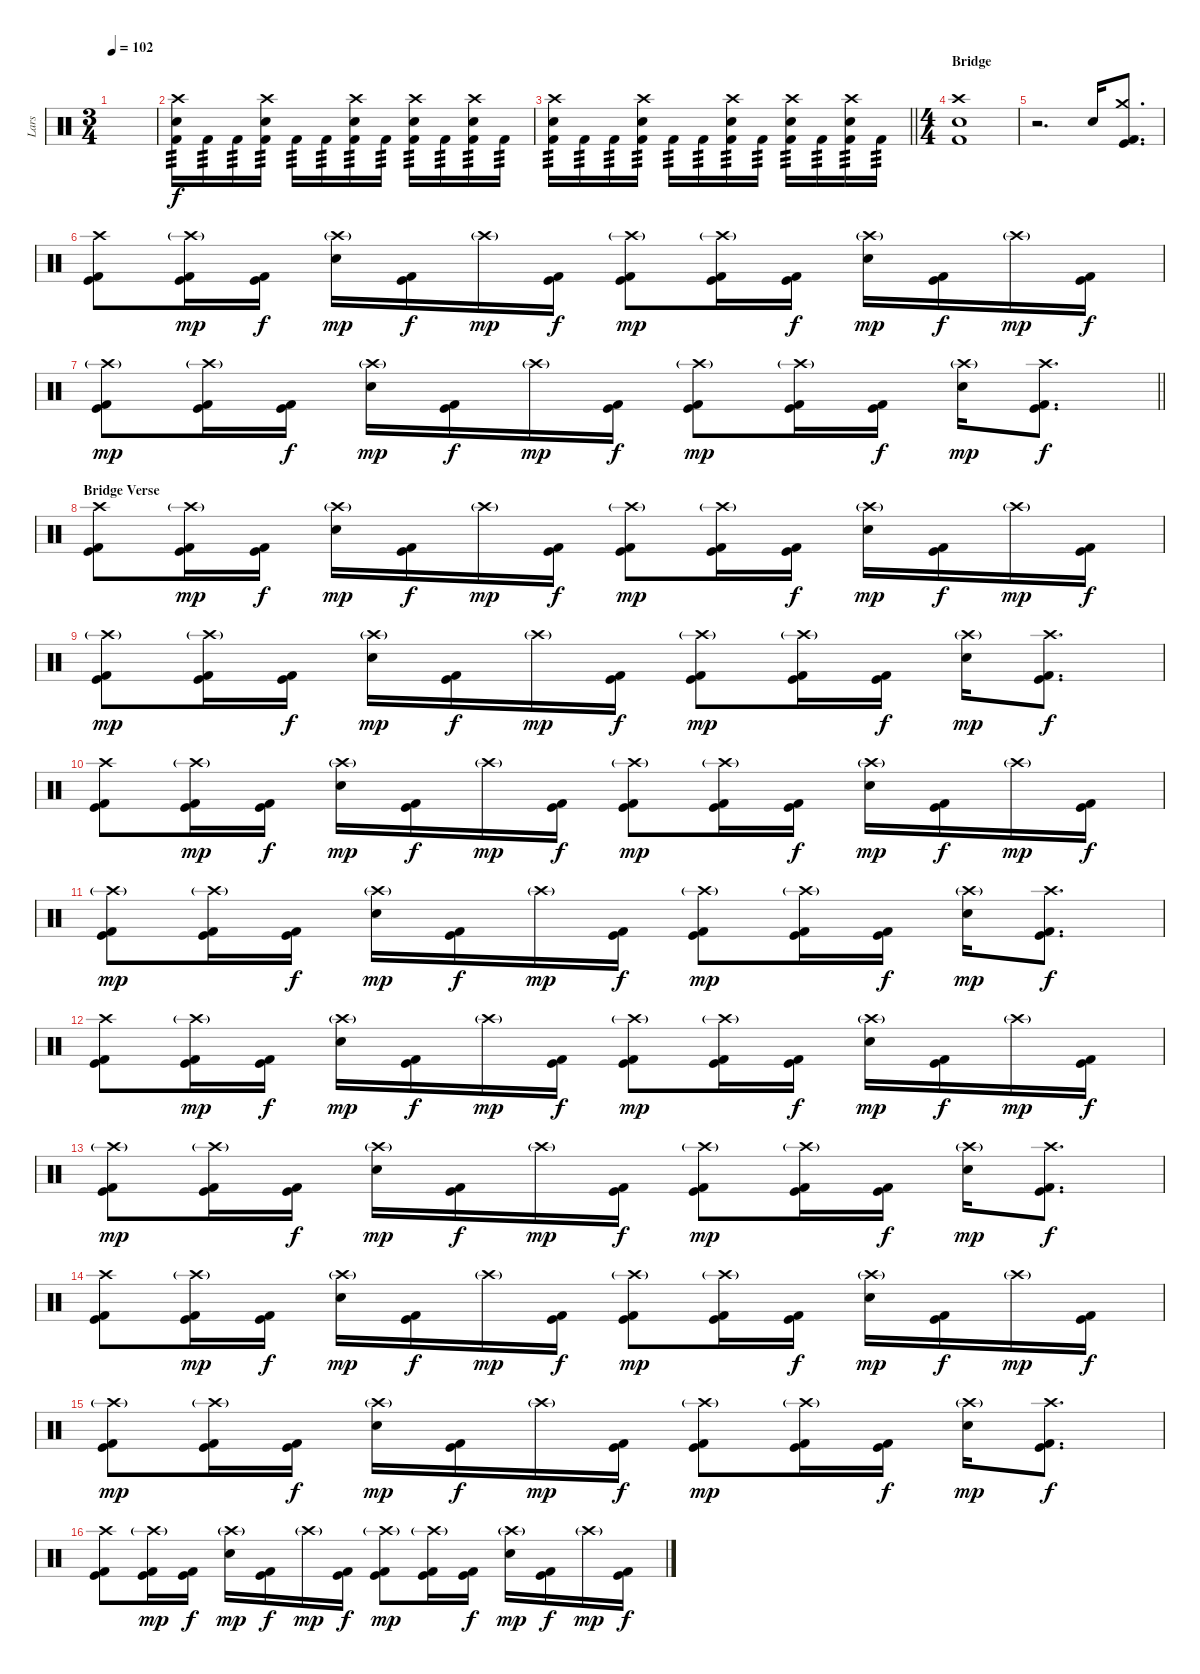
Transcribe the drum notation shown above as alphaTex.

\track ("Lars" "Lars") {instrument percussion}
\staff {score}
\articulation defaults
\ts (3 4)
\tempo 102
\clef neutral
\ks c
|
("Crash high (hit)" "Electric Snare (hit)" "Kick (hit) 2").16{tp 3} "Kick (hit) 2".16{tp 3} "Kick (hit) 2".16{tp 3} ("Crash high (hit)" "Electric Snare (hit)" "Kick (hit) 2").16{tp 3} "Kick (hit) 2".16{tp 3} "Kick (hit) 2".16{tp 3} ("Crash high (hit)" "Electric Snare (hit)" "Kick (hit) 2").16{tp 3} "Kick (hit) 2".16{tp 3} ("Crash high (hit)" "Electric Snare (hit)" "Kick (hit) 2").16{tp 3} "Kick (hit) 2".16{tp 3} ("Crash high (hit)" "Electric Snare (hit)" "Kick (hit) 2").16{tp 3} "Kick (hit) 2".16{tp 3} |
\barLineRight lightlight
("Crash high (hit)" "Electric Snare (hit)" "Kick (hit) 2").16{tp 3} "Kick (hit) 2".16{tp 3} "Kick (hit) 2".16{tp 3} ("Crash high (hit)" "Electric Snare (hit)" "Kick (hit) 2").16{tp 3} "Kick (hit) 2".16{tp 3} "Kick (hit) 2".16{tp 3} ("Crash high (hit)" "Electric Snare (hit)" "Kick (hit) 2").16{tp 3} "Kick (hit) 2".16{tp 3} ("Crash high (hit)" "Electric Snare (hit)" "Kick (hit) 2").16{tp 3} "Kick (hit) 2".16{tp 3} ("Crash high (hit)" "Electric Snare (hit)" "Kick (hit) 2").16{tp 3} "Kick (hit) 2".16{tp 3} |
\ts (4 4)
\section ("" "Bridge")
("Crash high (hit)" "Electric Snare (hit)" "Kick (hit) 2").1 |
r.2{d} "Electric Snare (hit)".16 ("Crash medium (hit)" "Kick (hit)" "Kick (hit) 2").8{d} |
("Crash high (hit)" "Kick (hit)" "Kick (hit) 2").8 ("Crash high (hit)"{g} "Kick (hit)" "Kick (hit) 2").16{dy mp} ("Kick (hit)" "Kick (hit) 2").16{dy f} ("Crash high (hit)"{g} "Electric Snare (hit)").16{dy mp} ("Kick (hit)" "Kick (hit) 2").16{dy f} "Crash high (hit)"{g}.16{dy mp} ("Kick (hit)" "Kick (hit) 2").16{dy f} ("Crash high (hit)"{g} "Kick (hit)" "Kick (hit) 2").8{dy mp} ("Crash high (hit)"{g} "Kick (hit)" "Kick (hit) 2").16 ("Kick (hit)" "Kick (hit) 2").16{dy f} ("Crash high (hit)"{g} "Electric Snare (hit)").16{dy mp} ("Kick (hit)" "Kick (hit) 2").16{dy f} "Crash high (hit)"{g}.16{dy mp} ("Kick (hit)" "Kick (hit) 2").16{dy f} |
\barLineRight lightlight
("Crash high (hit)"{g} "Kick (hit)" "Kick (hit) 2").8{dy mp} ("Crash high (hit)"{g} "Kick (hit)" "Kick (hit) 2").16 ("Kick (hit)" "Kick (hit) 2").16{dy f} ("Crash high (hit)"{g} "Electric Snare (hit)").16{dy mp} ("Kick (hit)" "Kick (hit) 2").16{dy f} "Crash high (hit)"{g}.16{dy mp} ("Kick (hit)" "Kick (hit) 2").16{dy f} ("Crash high (hit)"{g} "Kick (hit)" "Kick (hit) 2").8{dy mp} ("Crash high (hit)"{g} "Kick (hit)" "Kick (hit) 2").16 ("Kick (hit)" "Kick (hit) 2").16{dy f} ("Crash high (hit)"{g} "Electric Snare (hit)").16{dy mp} ("Crash high (hit)" "Kick (hit)" "Kick (hit) 2").8{d dy f} |
\section ("" "Bridge Verse")
("Crash high (hit)" "Kick (hit)" "Kick (hit) 2").8 ("Crash high (hit)"{g} "Kick (hit)" "Kick (hit) 2").16{dy mp} ("Kick (hit)" "Kick (hit) 2").16{dy f} ("Crash high (hit)"{g} "Electric Snare (hit)").16{dy mp} ("Kick (hit)" "Kick (hit) 2").16{dy f} "Crash high (hit)"{g}.16{dy mp} ("Kick (hit)" "Kick (hit) 2").16{dy f} ("Crash high (hit)"{g} "Kick (hit)" "Kick (hit) 2").8{dy mp} ("Crash high (hit)"{g} "Kick (hit)" "Kick (hit) 2").16 ("Kick (hit)" "Kick (hit) 2").16{dy f} ("Crash high (hit)"{g} "Electric Snare (hit)").16{dy mp} ("Kick (hit)" "Kick (hit) 2").16{dy f} "Crash high (hit)"{g}.16{dy mp} ("Kick (hit)" "Kick (hit) 2").16{dy f} |
("Crash high (hit)"{g} "Kick (hit)" "Kick (hit) 2").8{dy mp} ("Crash high (hit)"{g} "Kick (hit)" "Kick (hit) 2").16 ("Kick (hit)" "Kick (hit) 2").16{dy f} ("Crash high (hit)"{g} "Electric Snare (hit)").16{dy mp} ("Kick (hit)" "Kick (hit) 2").16{dy f} "Crash high (hit)"{g}.16{dy mp} ("Kick (hit)" "Kick (hit) 2").16{dy f} ("Crash high (hit)"{g} "Kick (hit)" "Kick (hit) 2").8{dy mp} ("Crash high (hit)"{g} "Kick (hit)" "Kick (hit) 2").16 ("Kick (hit)" "Kick (hit) 2").16{dy f} ("Crash high (hit)"{g} "Electric Snare (hit)").16{dy mp} ("Crash high (hit)" "Kick (hit)" "Kick (hit) 2").8{d dy f} |
("Crash high (hit)" "Kick (hit)" "Kick (hit) 2").8 ("Crash high (hit)"{g} "Kick (hit)" "Kick (hit) 2").16{dy mp} ("Kick (hit)" "Kick (hit) 2").16{dy f} ("Crash high (hit)"{g} "Electric Snare (hit)").16{dy mp} ("Kick (hit)" "Kick (hit) 2").16{dy f} "Crash high (hit)"{g}.16{dy mp} ("Kick (hit)" "Kick (hit) 2").16{dy f} ("Crash high (hit)"{g} "Kick (hit)" "Kick (hit) 2").8{dy mp} ("Crash high (hit)"{g} "Kick (hit)" "Kick (hit) 2").16 ("Kick (hit)" "Kick (hit) 2").16{dy f} ("Crash high (hit)"{g} "Electric Snare (hit)").16{dy mp} ("Kick (hit)" "Kick (hit) 2").16{dy f} "Crash high (hit)"{g}.16{dy mp} ("Kick (hit)" "Kick (hit) 2").16{dy f} |
("Crash high (hit)"{g} "Kick (hit)" "Kick (hit) 2").8{dy mp} ("Crash high (hit)"{g} "Kick (hit)" "Kick (hit) 2").16 ("Kick (hit)" "Kick (hit) 2").16{dy f} ("Crash high (hit)"{g} "Electric Snare (hit)").16{dy mp} ("Kick (hit)" "Kick (hit) 2").16{dy f} "Crash high (hit)"{g}.16{dy mp} ("Kick (hit)" "Kick (hit) 2").16{dy f} ("Crash high (hit)"{g} "Kick (hit)" "Kick (hit) 2").8{dy mp} ("Crash high (hit)"{g} "Kick (hit)" "Kick (hit) 2").16 ("Kick (hit)" "Kick (hit) 2").16{dy f} ("Crash high (hit)"{g} "Electric Snare (hit)").16{dy mp} ("Crash high (hit)" "Kick (hit)" "Kick (hit) 2").8{d dy f} |
("Crash high (hit)" "Kick (hit)" "Kick (hit) 2").8 ("Crash high (hit)"{g} "Kick (hit)" "Kick (hit) 2").16{dy mp} ("Kick (hit)" "Kick (hit) 2").16{dy f} ("Crash high (hit)"{g} "Electric Snare (hit)").16{dy mp} ("Kick (hit)" "Kick (hit) 2").16{dy f} "Crash high (hit)"{g}.16{dy mp} ("Kick (hit)" "Kick (hit) 2").16{dy f} ("Crash high (hit)"{g} "Kick (hit)" "Kick (hit) 2").8{dy mp} ("Crash high (hit)"{g} "Kick (hit)" "Kick (hit) 2").16 ("Kick (hit)" "Kick (hit) 2").16{dy f} ("Crash high (hit)"{g} "Electric Snare (hit)").16{dy mp} ("Kick (hit)" "Kick (hit) 2").16{dy f} "Crash high (hit)"{g}.16{dy mp} ("Kick (hit)" "Kick (hit) 2").16{dy f} |
("Crash high (hit)"{g} "Kick (hit)" "Kick (hit) 2").8{dy mp} ("Crash high (hit)"{g} "Kick (hit)" "Kick (hit) 2").16 ("Kick (hit)" "Kick (hit) 2").16{dy f} ("Crash high (hit)"{g} "Electric Snare (hit)").16{dy mp} ("Kick (hit)" "Kick (hit) 2").16{dy f} "Crash high (hit)"{g}.16{dy mp} ("Kick (hit)" "Kick (hit) 2").16{dy f} ("Crash high (hit)"{g} "Kick (hit)" "Kick (hit) 2").8{dy mp} ("Crash high (hit)"{g} "Kick (hit)" "Kick (hit) 2").16 ("Kick (hit)" "Kick (hit) 2").16{dy f} ("Crash high (hit)"{g} "Electric Snare (hit)").16{dy mp} ("Crash high (hit)" "Kick (hit)" "Kick (hit) 2").8{d dy f} |
("Crash high (hit)" "Kick (hit)" "Kick (hit) 2").8 ("Crash high (hit)"{g} "Kick (hit)" "Kick (hit) 2").16{dy mp} ("Kick (hit)" "Kick (hit) 2").16{dy f} ("Crash high (hit)"{g} "Electric Snare (hit)").16{dy mp} ("Kick (hit)" "Kick (hit) 2").16{dy f} "Crash high (hit)"{g}.16{dy mp} ("Kick (hit)" "Kick (hit) 2").16{dy f} ("Crash high (hit)"{g} "Kick (hit)" "Kick (hit) 2").8{dy mp} ("Crash high (hit)"{g} "Kick (hit)" "Kick (hit) 2").16 ("Kick (hit)" "Kick (hit) 2").16{dy f} ("Crash high (hit)"{g} "Electric Snare (hit)").16{dy mp} ("Kick (hit)" "Kick (hit) 2").16{dy f} "Crash high (hit)"{g}.16{dy mp} ("Kick (hit)" "Kick (hit) 2").16{dy f} |
("Crash high (hit)"{g} "Kick (hit)" "Kick (hit) 2").8{dy mp} ("Crash high (hit)"{g} "Kick (hit)" "Kick (hit) 2").16 ("Kick (hit)" "Kick (hit) 2").16{dy f} ("Crash high (hit)"{g} "Electric Snare (hit)").16{dy mp} ("Kick (hit)" "Kick (hit) 2").16{dy f} "Crash high (hit)"{g}.16{dy mp} ("Kick (hit)" "Kick (hit) 2").16{dy f} ("Crash high (hit)"{g} "Kick (hit)" "Kick (hit) 2").8{dy mp} ("Crash high (hit)"{g} "Kick (hit)" "Kick (hit) 2").16 ("Kick (hit)" "Kick (hit) 2").16{dy f} ("Crash high (hit)"{g} "Electric Snare (hit)").16{dy mp} ("Crash high (hit)" "Kick (hit)" "Kick (hit) 2").8{d dy f} |
("Crash high (hit)" "Kick (hit)" "Kick (hit) 2").8 ("Crash high (hit)"{g} "Kick (hit)" "Kick (hit) 2").16{dy mp} ("Kick (hit)" "Kick (hit) 2").16{dy f} ("Crash high (hit)"{g} "Electric Snare (hit)").16{dy mp} ("Kick (hit)" "Kick (hit) 2").16{dy f} "Crash high (hit)"{g}.16{dy mp} ("Kick (hit)" "Kick (hit) 2").16{dy f} ("Crash high (hit)"{g} "Kick (hit)" "Kick (hit) 2").8{dy mp} ("Crash high (hit)"{g} "Kick (hit)" "Kick (hit) 2").16 ("Kick (hit)" "Kick (hit) 2").16{dy f} ("Crash high (hit)"{g} "Electric Snare (hit)").16{dy mp} ("Kick (hit)" "Kick (hit) 2").16{dy f} "Crash high (hit)"{g}.16{dy mp} ("Kick (hit)" "Kick (hit) 2").16{dy f}
